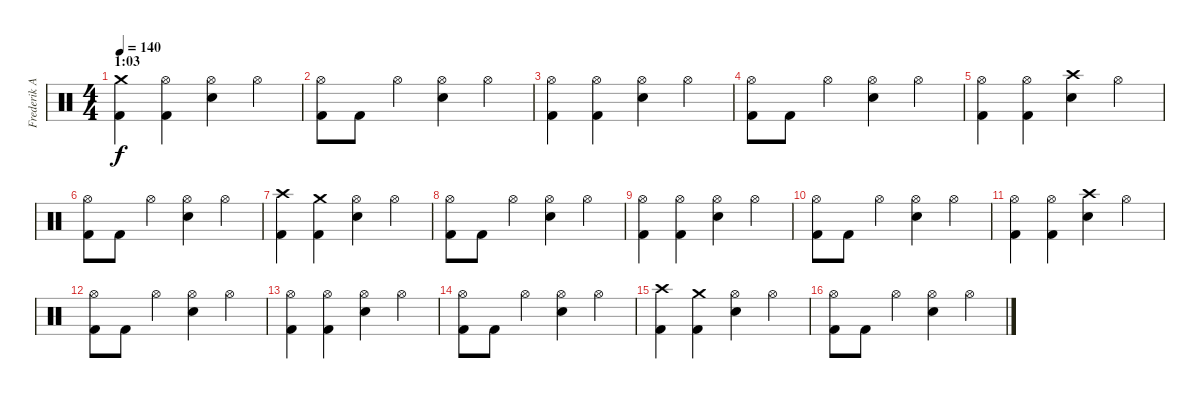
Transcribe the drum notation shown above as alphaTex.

\track ("Frederik Anderson" "Frederik A") {instrument percussion}
\staff {score}
\articulation defaults
\ts (4 4)
\section ("" "1:03")
\tempo 140
\clef neutral
\ks c
("Crash medium (hit)" "Kick (hit) 2").4{dy f} ("Hi-Hat (open)" "Kick (hit) 2").4 ("Hi-Hat (open)" "Electric Snare (hit)").4 "Hi-Hat (open)".4 |
("Hi-Hat (open)" "Kick (hit) 2").8 "Kick (hit) 2".8 "Hi-Hat (open)".4 ("Hi-Hat (open)" "Electric Snare (hit)").4 "Hi-Hat (open)".4 |
("Hi-Hat (open)" "Kick (hit) 2").4 ("Hi-Hat (open)" "Kick (hit) 2").4 ("Hi-Hat (open)" "Electric Snare (hit)").4 "Hi-Hat (open)".4 |
("Hi-Hat (open)" "Kick (hit) 2").8 "Kick (hit) 2".8 "Hi-Hat (open)".4 ("Hi-Hat (open)" "Electric Snare (hit)").4 "Hi-Hat (open)".4 |
("Hi-Hat (open)" "Kick (hit) 2").4 ("Hi-Hat (open)" "Kick (hit) 2").4 ("Crash high (hit)" "Electric Snare (hit)").4 "Hi-Hat (open)".4 |
("Hi-Hat (open)" "Kick (hit) 2").8 "Kick (hit) 2".8 "Hi-Hat (open)".4 ("Hi-Hat (open)" "Electric Snare (hit)").4 "Hi-Hat (open)".4 |
("Crash high (hit)" "Kick (hit) 2").4 ("Crash medium (hit)" "Kick (hit) 2").4 ("Hi-Hat (open)" "Electric Snare (hit)").4 "Hi-Hat (open)".4 |
("Hi-Hat (open)" "Kick (hit) 2").8 "Kick (hit) 2".8 "Hi-Hat (open)".4 ("Hi-Hat (open)" "Electric Snare (hit)").4 "Hi-Hat (open)".4 |
("Hi-Hat (open)" "Kick (hit) 2").4 ("Hi-Hat (open)" "Kick (hit) 2").4 ("Hi-Hat (open)" "Electric Snare (hit)").4 "Hi-Hat (open)".4 |
("Hi-Hat (open)" "Kick (hit) 2").8 "Kick (hit) 2".8 "Hi-Hat (open)".4 ("Hi-Hat (open)" "Electric Snare (hit)").4 "Hi-Hat (open)".4 |
("Hi-Hat (open)" "Kick (hit) 2").4 ("Hi-Hat (open)" "Kick (hit) 2").4 ("Crash high (hit)" "Electric Snare (hit)").4 "Hi-Hat (open)".4 |
("Hi-Hat (open)" "Kick (hit) 2").8 "Kick (hit) 2".8 "Hi-Hat (open)".4 ("Hi-Hat (open)" "Electric Snare (hit)").4 "Hi-Hat (open)".4 |
("Hi-Hat (open)" "Kick (hit) 2").4 ("Hi-Hat (open)" "Kick (hit) 2").4 ("Hi-Hat (open)" "Electric Snare (hit)").4 "Hi-Hat (open)".4 |
("Hi-Hat (open)" "Kick (hit) 2").8 "Kick (hit) 2".8 "Hi-Hat (open)".4 ("Hi-Hat (open)" "Electric Snare (hit)").4 "Hi-Hat (open)".4 |
("Crash high (hit)" "Kick (hit) 2").4 ("Crash medium (hit)" "Kick (hit) 2").4 ("Hi-Hat (open)" "Electric Snare (hit)").4 "Hi-Hat (open)".4 |
("Hi-Hat (open)" "Kick (hit) 2").8 "Kick (hit) 2".8 "Hi-Hat (open)".4 ("Hi-Hat (open)" "Electric Snare (hit)").4 "Hi-Hat (open)".4
